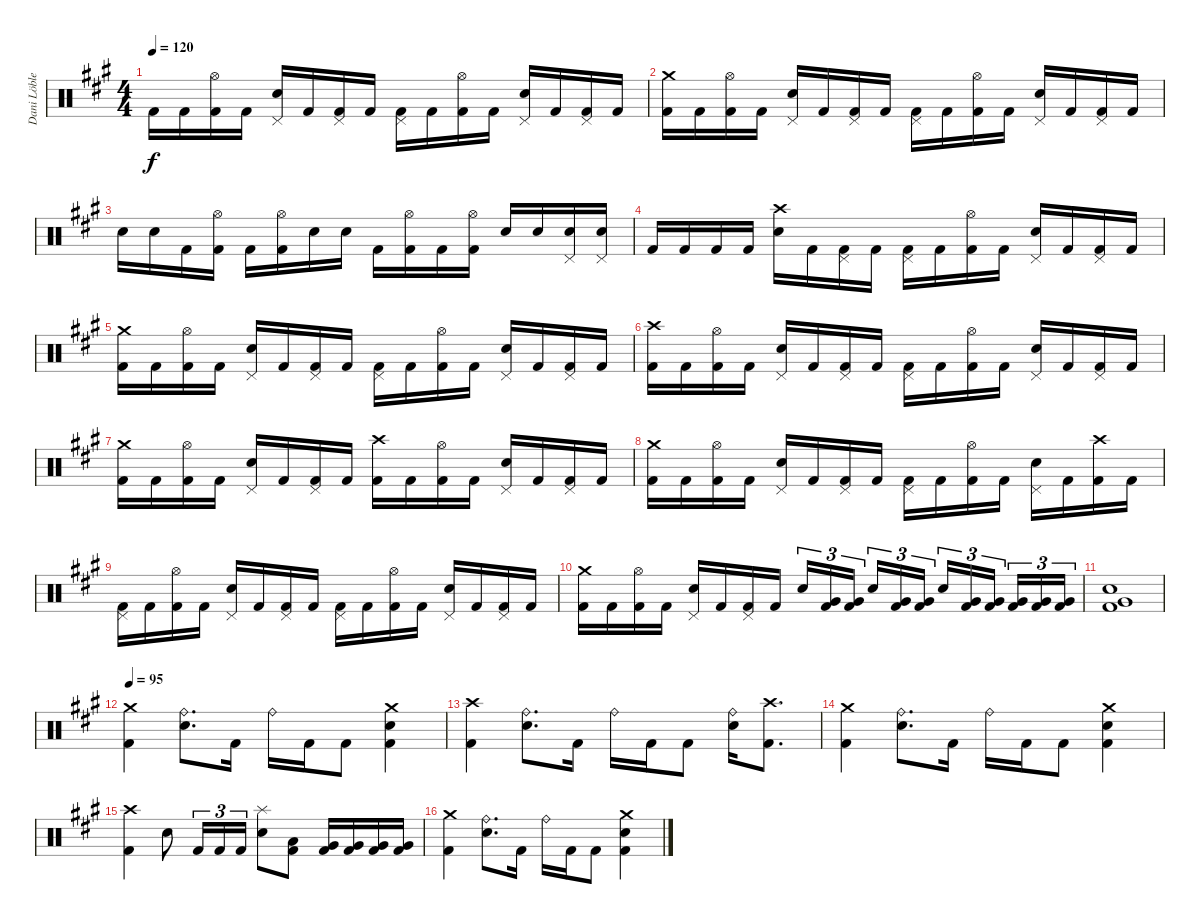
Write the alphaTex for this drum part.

\track ("Dani Löble" "Dani Löble") {instrument percussion}
\staff {score}
\articulation defaults
\ts (4 4)
\tempo 120
\clef neutral
\ks f#minor "Kick (hit) 2".16{dy f} "Kick (hit) 2".16
("Hi-Hat (open)" "Kick (hit) 2").16 "Kick (hit) 2".16 ("Pedal Hi-Hat (hit)" "Snare (hit) 2").16 "Kick (hit) 2".16 ("Pedal Hi-Hat (hit)" "Kick (hit) 2").16 "Kick (hit) 2".16 ("Pedal Hi-Hat (hit)" "Kick (hit) 2").16 "Kick (hit) 2".16 ("Hi-Hat (open)" "Kick (hit) 2").16 "Kick (hit) 2".16 ("Pedal Hi-Hat (hit)" "Snare (hit) 2").16 "Kick (hit) 2".16 ("Pedal Hi-Hat (hit)" "Kick (hit) 2").16 "Kick (hit) 2".16 |
("Crash medium (hit)" "Kick (hit) 2").16 "Kick (hit) 2".16 ("Hi-Hat (open)" "Kick (hit) 2").16 "Kick (hit) 2".16 ("Pedal Hi-Hat (hit)" "Snare (hit) 2").16 "Kick (hit) 2".16 ("Pedal Hi-Hat (hit)" "Kick (hit) 2").16 "Kick (hit) 2".16 ("Pedal Hi-Hat (hit)" "Kick (hit) 2").16 "Kick (hit) 2".16 ("Hi-Hat (open)" "Kick (hit) 2").16 "Kick (hit) 2".16 ("Pedal Hi-Hat (hit)" "Snare (hit) 2").16 "Kick (hit) 2".16 ("Pedal Hi-Hat (hit)" "Kick (hit) 2").16 "Kick (hit) 2".16 |
"Snare (hit) 2".16 "Snare (hit) 2".16 "Kick (hit) 2".16 ("Hi-Hat (open)" "Kick (hit) 2").16 "Kick (hit) 2".16 ("Hi-Hat (open)" "Kick (hit) 2").16 "Snare (hit) 2".16 "Snare (hit) 2".16 "Kick (hit) 2".16 ("Hi-Hat (open)" "Kick (hit) 2").16 "Kick (hit) 2".16 ("Hi-Hat (open)" "Kick (hit) 2").16 "Snare (hit) 2".16 "Snare (hit) 2".16 ("Pedal Hi-Hat (hit)" "Snare (hit) 2").16 ("Pedal Hi-Hat (hit)" "Snare (hit) 2").16 |
"Kick (hit) 2".16 "Kick (hit) 2".16 "Kick (hit) 2".16 "Kick (hit) 2".16 ("Crash high (hit)" "Snare (hit) 2").16 "Kick (hit) 2".16 ("Pedal Hi-Hat (hit)" "Kick (hit) 2").16 "Kick (hit) 2".16 ("Pedal Hi-Hat (hit)" "Kick (hit) 2").16 "Kick (hit) 2".16 ("Hi-Hat (open)" "Kick (hit) 2").16 "Kick (hit) 2".16 ("Pedal Hi-Hat (hit)" "Snare (hit) 2").16 "Kick (hit) 2".16 ("Pedal Hi-Hat (hit)" "Kick (hit) 2").16 "Kick (hit) 2".16 |
("Crash medium (hit)" "Kick (hit) 2").16 "Kick (hit) 2".16 ("Hi-Hat (open)" "Kick (hit) 2").16 "Kick (hit) 2".16 ("Pedal Hi-Hat (hit)" "Snare (hit) 2").16 "Kick (hit) 2".16 ("Pedal Hi-Hat (hit)" "Kick (hit) 2").16 "Kick (hit) 2".16 ("Pedal Hi-Hat (hit)" "Kick (hit) 2").16 "Kick (hit) 2".16 ("Hi-Hat (open)" "Kick (hit) 2").16 "Kick (hit) 2".16 ("Pedal Hi-Hat (hit)" "Snare (hit) 2").16 "Kick (hit) 2".16 ("Pedal Hi-Hat (hit)" "Kick (hit) 2").16 "Kick (hit) 2".16 |
("Crash high (hit)" "Kick (hit) 2").16 "Kick (hit) 2".16 ("Hi-Hat (open)" "Kick (hit) 2").16 "Kick (hit) 2".16 ("Pedal Hi-Hat (hit)" "Snare (hit) 2").16 "Kick (hit) 2".16 ("Pedal Hi-Hat (hit)" "Kick (hit) 2").16 "Kick (hit) 2".16 ("Pedal Hi-Hat (hit)" "Kick (hit) 2").16 "Kick (hit) 2".16 ("Hi-Hat (open)" "Kick (hit) 2").16 "Kick (hit) 2".16 ("Pedal Hi-Hat (hit)" "Snare (hit) 2").16 "Kick (hit) 2".16 ("Pedal Hi-Hat (hit)" "Kick (hit) 2").16 "Kick (hit) 2".16 |
("Crash medium (hit)" "Kick (hit) 2").16 "Kick (hit) 2".16 ("Hi-Hat (open)" "Kick (hit) 2").16 "Kick (hit) 2".16 ("Pedal Hi-Hat (hit)" "Snare (hit) 2").16 "Kick (hit) 2".16 ("Pedal Hi-Hat (hit)" "Kick (hit) 2").16 "Kick (hit) 2".16 ("Crash high (hit)" "Kick (hit) 2").16 "Kick (hit) 2".16 ("Hi-Hat (open)" "Kick (hit) 2").16 "Kick (hit) 2".16 ("Pedal Hi-Hat (hit)" "Snare (hit) 2").16 "Kick (hit) 2".16 ("Pedal Hi-Hat (hit)" "Kick (hit) 2").16 "Kick (hit) 2".16 |
("Crash medium (hit)" "Kick (hit) 2").16 "Kick (hit) 2".16 ("Hi-Hat (open)" "Kick (hit) 2").16 "Kick (hit) 2".16 ("Pedal Hi-Hat (hit)" "Snare (hit) 2").16 "Kick (hit) 2".16 ("Pedal Hi-Hat (hit)" "Kick (hit) 2").16 "Kick (hit) 2".16 ("Pedal Hi-Hat (hit)" "Kick (hit) 2").16 "Kick (hit) 2".16 ("Hi-Hat (open)" "Kick (hit) 2").16 "Kick (hit) 2".16 ("Pedal Hi-Hat (hit)" "Snare (hit) 2").16 "Kick (hit) 2".16 ("Crash high (hit)" "Kick (hit) 2").16 "Kick (hit) 2".16 |
("Pedal Hi-Hat (hit)" "Kick (hit) 2").16 "Kick (hit) 2".16 ("Hi-Hat (open)" "Kick (hit) 2").16 "Kick (hit) 2".16 ("Pedal Hi-Hat (hit)" "Snare (hit) 2").16 "Kick (hit) 2".16 ("Pedal Hi-Hat (hit)" "Kick (hit) 2").16 "Kick (hit) 2".16 ("Pedal Hi-Hat (hit)" "Kick (hit) 2").16 "Kick (hit) 2".16 ("Hi-Hat (open)" "Kick (hit) 2").16 "Kick (hit) 2".16 ("Pedal Hi-Hat (hit)" "Snare (hit) 2").16 "Kick (hit) 2".16 ("Pedal Hi-Hat (hit)" "Kick (hit) 2").16 "Kick (hit) 2".16 |
("Crash medium (hit)" "Kick (hit) 2").16 "Kick (hit) 2".16 ("Hi-Hat (open)" "Kick (hit) 2").16 "Kick (hit) 2".16 ("Pedal Hi-Hat (hit)" "Snare (hit) 2").16 "Kick (hit) 2".16 ("Pedal Hi-Hat (hit)" "Kick (hit) 2").16 "Kick (hit) 2".16 "Snare (hit) 2".16{tu (3 2)} ("Very Low Tom (hit)" "Kick (hit) 2").16{tu (3 2)} ("Very Low Tom (hit)" "Kick (hit) 2").16{tu (3 2) beam splitsecondary} "Snare (hit) 2".16{tu (3 2)} ("Very Low Tom (hit)" "Kick (hit) 2").16{tu (3 2)} ("Very Low Tom (hit)" "Kick (hit) 2").16{tu (3 2)} "Snare (hit) 2".16{tu (3 2)} ("Very Low Tom (hit)" "Kick (hit) 2").16{tu (3 2)} ("Very Low Tom (hit)" "Kick (hit) 2").16{tu (3 2) beam splitsecondary} ("Very Low Tom (hit)" "Kick (hit) 2").16{tu (3 2)} ("Very Low Tom (hit)" "Kick (hit) 2").16{tu (3 2)} ("Very Low Tom (hit)" "Kick (hit) 2").16{tu (3 2)} |
("Very Low Tom (hit)" "Snare (hit) 2" "Kick (hit) 2").1 |
\tempo 95
("Crash medium (hit)" "Kick (hit) 2").4 ("Ride (bell)" "Snare (hit) 2").8{d} "Kick (hit) 2".16 "Ride (bell)".16 "Kick (hit) 2".16 "Kick (hit) 2".8 ("Crash medium (hit)" "Snare (hit) 2" "Kick (hit) 2").4 |
("Crash high (hit)" "Kick (hit) 2").4 ("Ride (bell)" "Snare (hit) 2").8{d} "Kick (hit) 2".16 "Ride (bell)".16 "Kick (hit) 2".16 "Kick (hit) 2".8 ("Ride (bell)" "Snare (hit) 2").16 ("Crash high (hit)" "Kick (hit) 2").8{d} |
("Crash medium (hit)" "Kick (hit) 2").4 ("Ride (bell)" "Snare (hit) 2").8{d} "Kick (hit) 2".16 "Ride (bell)".16 "Kick (hit) 2".16 "Kick (hit) 2".8 ("Crash medium (hit)" "Snare (hit) 2" "Kick (hit) 2").4 |
("Crash high (hit)" "Kick (hit) 2").4 "Snare (hit) 2".8 "Kick (hit) 2".16{tu (3 2)} "Kick (hit) 2".16{tu (3 2)} "Kick (hit) 2".16{tu (3 2)} ("Splash (hit)" "Snare (hit) 2").8 ("Low Floor Tom (hit)" "Kick (hit) 2").8 ("Very Low Tom (hit)" "Kick (hit) 2").16 ("Very Low Tom (hit)" "Kick (hit) 2").16 ("Very Low Tom (hit)" "Kick (hit) 2").16 ("Very Low Tom (hit)" "Kick (hit) 2").16 |
("Crash medium (hit)" "Kick (hit) 2").4 ("Ride (bell)" "Snare (hit) 2").8{d} "Kick (hit) 2".16 "Ride (bell)".16 "Kick (hit) 2".16 "Kick (hit) 2".8 ("Crash medium (hit)" "Snare (hit) 2" "Kick (hit) 2").4
